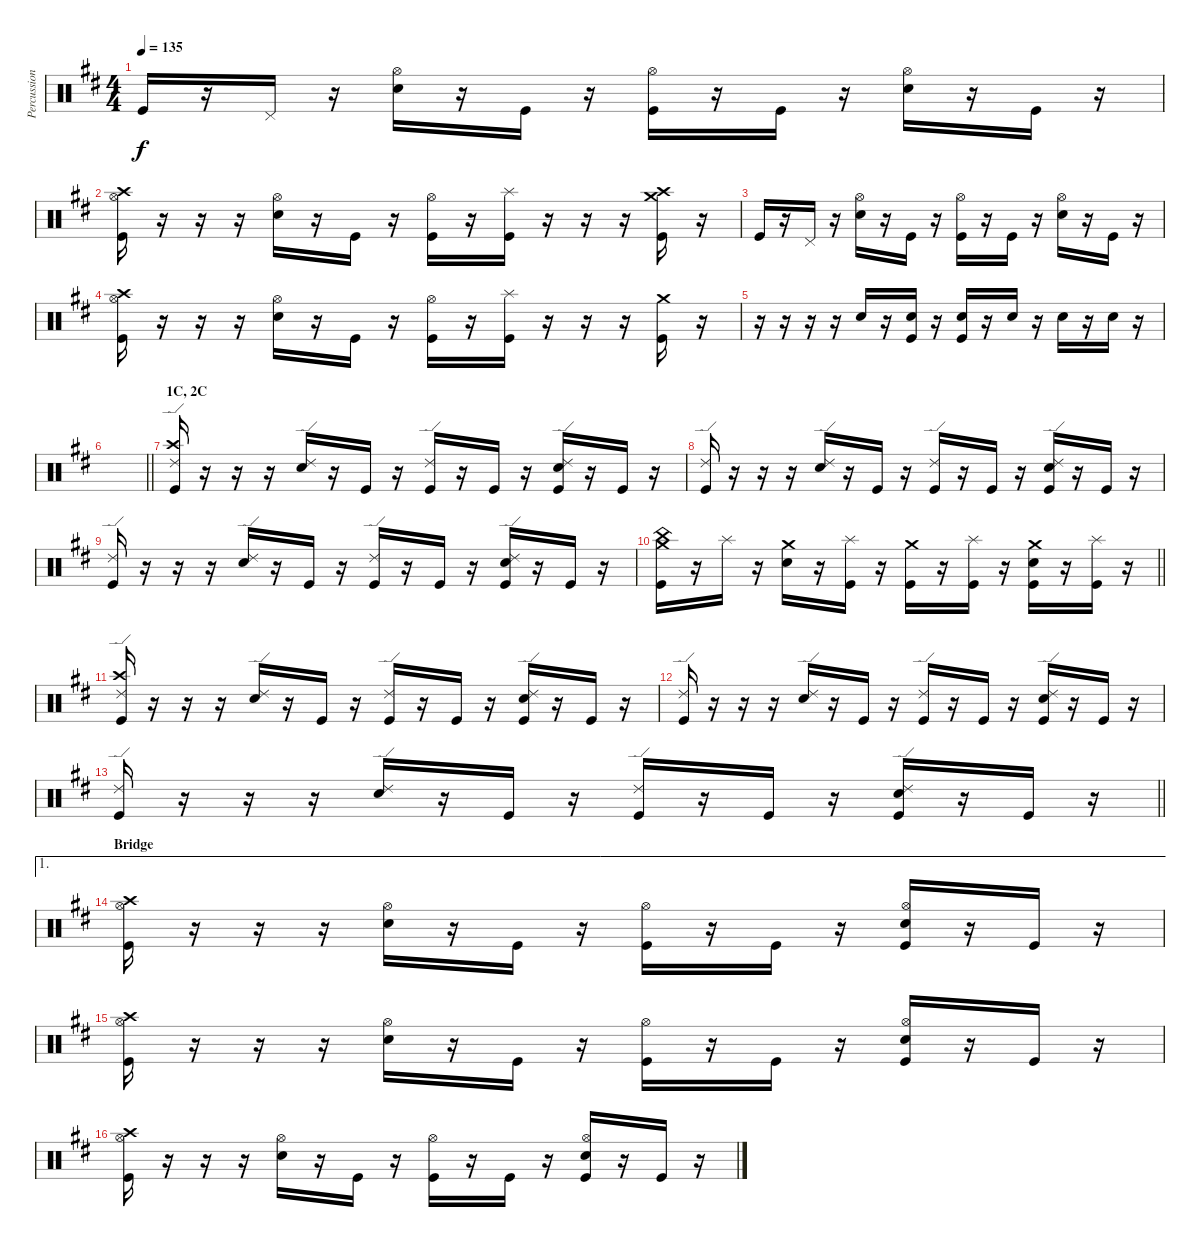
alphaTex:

\track ("Percussion" "Percussion") {instrument percussion}
\staff {score}
\articulation defaults
\ts (4 4)
\tempo 135
\clef neutral
\ks bminor "Kick (hit)".16{dy f}
r.16 "Pedal Hi-Hat (hit)".16 r.16 ("Hi-Hat (open)" "Electric Snare (hit)").16 r.16 "Kick (hit)".16 r.16 ("Hi-Hat (open)" "Kick (hit)").16 r.16 "Kick (hit)".16 r.16 ("Hi-Hat (open)" "Electric Snare (hit)").16 r.16 "Kick (hit)".16 r.16 |
("Hi-Hat (open)" "Crash high (hit)" "Kick (hit)").16 r.16 r.16 r.16 ("Hi-Hat (open)" "Electric Snare (hit)").16 r.16 "Kick (hit)".16 r.16 ("Hi-Hat (open)" "Kick (hit)").16 r.16 ("Splash (hit)" "Kick (hit)").16 r.16 r.16 r.16 ("Crash medium (hit)" "Crash high (hit)" "Kick (hit)").16 r.16 |
"Kick (hit)".16 r.16 "Pedal Hi-Hat (hit)".16 r.16 ("Hi-Hat (open)" "Electric Snare (hit)").16 r.16 "Kick (hit)".16 r.16 ("Hi-Hat (open)" "Kick (hit)").16 r.16 "Kick (hit)".16 r.16 ("Hi-Hat (open)" "Electric Snare (hit)").16 r.16 "Kick (hit)".16 r.16 |
("Hi-Hat (open)" "Crash high (hit)" "Kick (hit)").16 r.16 r.16 r.16 ("Hi-Hat (open)" "Electric Snare (hit)").16 r.16 "Kick (hit)".16 r.16 ("Hi-Hat (open)" "Kick (hit)").16 r.16 ("Splash (hit)" "Kick (hit)").16 r.16 r.16 r.16 ("Crash medium (hit)" "Kick (hit)").16 r.16 |
r.16 r.16 r.16 r.16 "Electric Snare (hit)".16 r.16 ("Electric Snare (hit)" "Kick (hit)").16 r.16 ("Electric Snare (hit)" "Kick (hit)").16 r.16 "Electric Snare (hit)".16 r.16 "Electric Snare (hit)".16 r.16 "Electric Snare (hit)".16 r.16 |
\barLineRight lightlight
|
\section ("" "1C, 2C")
("Ride (edge) 2" "Crash high (hit)" "Kick (hit)").16 r.16 r.16 r.16 ("Ride (edge) 2" "Electric Snare (hit)").16 r.16 "Kick (hit)".16 r.16 ("Ride (edge) 2" "Kick (hit)").16 r.16 "Kick (hit)".16 r.16 ("Ride (edge) 2" "Electric Snare (hit)" "Kick (hit)").16 r.16 "Kick (hit)".16 r.16 |
("Ride (edge) 2" "Kick (hit)").16 r.16 r.16 r.16 ("Ride (edge) 2" "Electric Snare (hit)").16 r.16 "Kick (hit)".16 r.16 ("Ride (edge) 2" "Kick (hit)").16 r.16 "Kick (hit)".16 r.16 ("Ride (edge) 2" "Electric Snare (hit)" "Kick (hit)").16 r.16 "Kick (hit)".16 r.16 |
("Ride (edge) 2" "Kick (hit)").16 r.16 r.16 r.16 ("Ride (edge) 2" "Electric Snare (hit)").16 r.16 "Kick (hit)".16 r.16 ("Ride (edge) 2" "Kick (hit)").16 r.16 "Kick (hit)".16 r.16 ("Ride (edge) 2" "Electric Snare (hit)" "Kick (hit)").16 r.16 "Kick (hit)".16 r.16 |
\barLineRight lightlight
("Crash medium (hit)" "China (hit)" "Kick (hit)").16 r.16 "Splash (hit)".16 r.16 ("Crash medium (hit)" "Electric Snare (hit)").16 r.16 ("Splash (hit)" "Kick (hit)").16 r.16 ("Crash medium (hit)" "Kick (hit)").16 r.16 ("Splash (hit)" "Kick (hit)").16 r.16 ("Crash medium (hit)" "Electric Snare (hit)" "Kick (hit)").16 r.16 ("Splash (hit)" "Kick (hit)").16 r.16 |
("Ride (edge) 2" "Crash high (hit)" "Kick (hit)").16 r.16 r.16 r.16 ("Ride (edge) 2" "Electric Snare (hit)").16 r.16 "Kick (hit)".16 r.16 ("Ride (edge) 2" "Kick (hit)").16 r.16 "Kick (hit)".16 r.16 ("Ride (edge) 2" "Electric Snare (hit)" "Kick (hit)").16 r.16 "Kick (hit)".16 r.16 |
("Ride (edge) 2" "Kick (hit)").16 r.16 r.16 r.16 ("Ride (edge) 2" "Electric Snare (hit)").16 r.16 "Kick (hit)".16 r.16 ("Ride (edge) 2" "Kick (hit)").16 r.16 "Kick (hit)".16 r.16 ("Ride (edge) 2" "Electric Snare (hit)" "Kick (hit)").16 r.16 "Kick (hit)".16 r.16 |
\barLineRight lightlight
("Ride (edge) 2" "Kick (hit)").16 r.16 r.16 r.16 ("Ride (edge) 2" "Electric Snare (hit)").16 r.16 "Kick (hit)".16 r.16 ("Ride (edge) 2" "Kick (hit)").16 r.16 "Kick (hit)".16 r.16 ("Ride (edge) 2" "Electric Snare (hit)" "Kick (hit)").16 r.16 "Kick (hit)".16 r.16 |
\ae 1
\section ("" "Bridge")
("Hi-Hat (open)" "Crash high (hit)" "Kick (hit)").16 r.16 r.16 r.16 ("Hi-Hat (open)" "Electric Snare (hit)").16 r.16 "Kick (hit)".16 r.16 ("Hi-Hat (open)" "Kick (hit)").16 r.16 "Kick (hit)".16 r.16 ("Hi-Hat (open)" "Electric Snare (hit)" "Kick (hit)").16 r.16 "Kick (hit)".16 r.16 |
("Hi-Hat (open)" "Crash high (hit)" "Kick (hit)").16 r.16 r.16 r.16 ("Hi-Hat (open)" "Electric Snare (hit)").16 r.16 "Kick (hit)".16 r.16 ("Hi-Hat (open)" "Kick (hit)").16 r.16 "Kick (hit)".16 r.16 ("Hi-Hat (open)" "Electric Snare (hit)" "Kick (hit)").16 r.16 "Kick (hit)".16 r.16 |
("Hi-Hat (open)" "Crash high (hit)" "Kick (hit)").16 r.16 r.16 r.16 ("Hi-Hat (open)" "Electric Snare (hit)").16 r.16 "Kick (hit)".16 r.16 ("Hi-Hat (open)" "Kick (hit)").16 r.16 "Kick (hit)".16 r.16 ("Hi-Hat (open)" "Electric Snare (hit)" "Kick (hit)").16 r.16 "Kick (hit)".16 r.16
